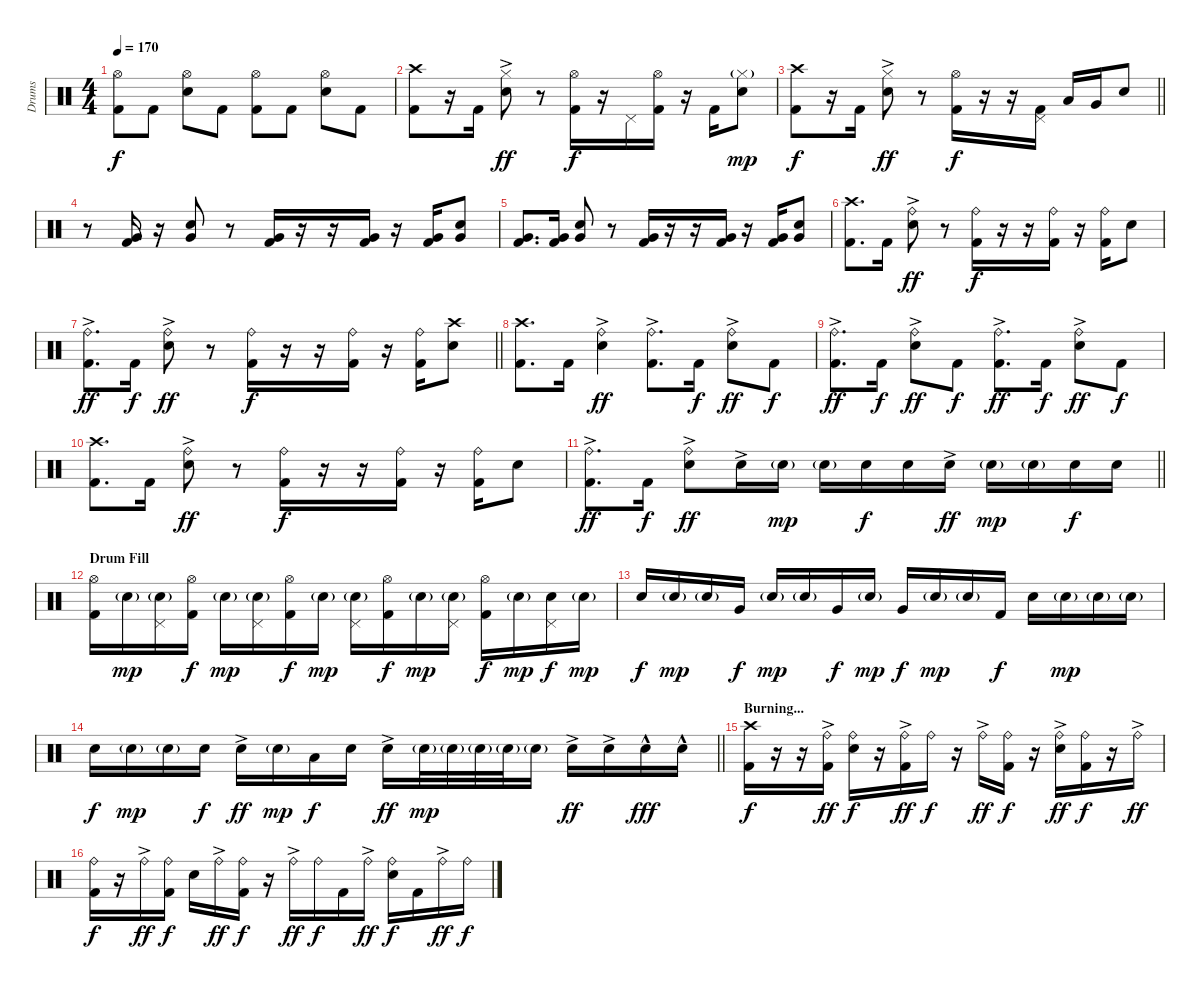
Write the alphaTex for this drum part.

\track ("Drums" "Drums") {instrument percussion}
\staff {score}
\articulation defaults
\ts (4 4)
\tempo 170
\clef neutral
\ks c
("Hi-Hat (open)" "Kick (hit) 2").8{dy f} "Kick (hit) 2".8 ("Hi-Hat (open)" "Snare (hit) 2").8 "Kick (hit) 2".8 ("Hi-Hat (open)" "Kick (hit) 2").8 "Kick (hit) 2".8 ("Hi-Hat (open)" "Snare (hit) 2").8 "Kick (hit) 2".8 |
("Crash high (hit)" "Kick (hit) 2").8 r.16 "Kick (hit) 2".16 ("Hi-Hat (closed)"{ac} "Snare (hit) 2").8{dy ff} r.8 ("Hi-Hat (open)" "Kick (hit) 2").16{dy f} r.16 "Pedal Hi-Hat (hit)".16 ("Hi-Hat (open)" "Kick (hit) 2").16 r.16 "Kick (hit) 2".16 ("Hi-Hat (closed)"{g} "Snare (hit) 2").8{dy mp} |
\barLineRight lightlight
("Crash high (hit)" "Kick (hit) 2").8{dy f} r.16 "Kick (hit) 2".16 ("Hi-Hat (closed)"{ac} "Snare (hit) 2").8{dy ff} r.8 ("Hi-Hat (open)" "Kick (hit) 2").16{dy f} r.16 r.16 ("Pedal Hi-Hat (hit)" "Kick (hit) 2").16 "Low Tom (hit)".16 "Very Low Tom (hit)".16 "Snare (hit) 2".8 |
\section ("" "")
r.8 ("Very Low Tom (hit)" "Kick (hit) 2").16 r.16 ("Very Low Tom (hit)" "Snare (hit) 2").8 r.8 ("Very Low Tom (hit)" "Kick (hit) 2").16 r.16 r.16 ("Very Low Tom (hit)" "Kick (hit) 2").16 r.16 ("Very Low Tom (hit)" "Kick (hit) 2").16 ("Very Low Tom (hit)" "Snare (hit) 2").8 |
("Very Low Tom (hit)" "Kick (hit) 2").8{d} ("Very Low Tom (hit)" "Kick (hit) 2").16 ("Very Low Tom (hit)" "Snare (hit) 2").8 r.8 ("Very Low Tom (hit)" "Kick (hit) 2").16 r.16 r.16 ("Very Low Tom (hit)" "Kick (hit) 2").16 r.16 ("Very Low Tom (hit)" "Kick (hit) 2").16 ("Very Low Tom (hit)" "Snare (hit) 2").8 |
("Crash high (hit)" "Kick (hit) 2").8{d} "Kick (hit) 2".16 ("Ride (bell)"{ac} "Snare (hit) 2").8{dy ff} r.8 ("Ride (bell)" "Kick (hit) 2").16{dy f} r.16 r.16 ("Ride (bell)" "Kick (hit) 2").16 r.16 ("Ride (bell)" "Kick (hit) 2").16 "Snare (hit) 2".8 |
\barLineRight lightlight
("Ride (bell)"{ac} "Kick (hit) 2").8{d dy ff} "Kick (hit) 2".16{dy f} ("Ride (bell)"{ac} "Snare (hit) 2").8{dy ff} r.8 ("Ride (bell)" "Kick (hit) 2").16{dy f} r.16 r.16 ("Ride (bell)" "Kick (hit) 2").16 r.16 ("Ride (bell)" "Kick (hit) 2").16 ("Crash high (hit)" "Snare (hit) 2").8 |
\section ("" "")
("Crash high (hit)" "Kick (hit) 2").8{d} "Kick (hit) 2".16 ("Ride (bell)"{ac} "Snare (hit) 2").4{dy ff} ("Ride (bell)"{ac} "Kick (hit) 2").8{d} "Kick (hit) 2".16{dy f} ("Ride (bell)"{ac} "Snare (hit) 2").8{dy ff} "Kick (hit) 2".8{dy f} |
("Ride (bell)"{ac} "Kick (hit) 2").8{d dy ff} "Kick (hit) 2".16{dy f} ("Ride (bell)"{ac} "Snare (hit) 2").8{dy ff} "Kick (hit) 2".8{dy f} ("Ride (bell)"{ac} "Kick (hit) 2").8{d dy ff} "Kick (hit) 2".16{dy f} ("Ride (bell)"{ac} "Snare (hit) 2").8{dy ff} "Kick (hit) 2".8{dy f} |
("Crash high (hit)" "Kick (hit) 2").8{d} "Kick (hit) 2".16 ("Ride (bell)"{ac} "Snare (hit) 2").8{dy ff} r.8 ("Ride (bell)" "Kick (hit) 2").16{dy f} r.16 r.16 ("Ride (bell)" "Kick (hit) 2").16 r.16 ("Ride (bell)" "Kick (hit) 2").16 "Snare (hit) 2".8 |
\barLineRight lightlight
("Ride (bell)"{ac} "Kick (hit) 2").8{d dy ff} "Kick (hit) 2".16{dy f} ("Ride (bell)"{ac} "Snare (hit) 2").8{dy ff} "Snare (hit) 2"{ac}.16 "Electric Snare (hit)"{g}.16{dy mp} "Electric Snare (hit)"{g}.16 "Electric Snare (hit)".16{dy f} "Electric Snare (hit)".16 "Snare (hit) 2"{ac}.16{dy ff} "Electric Snare (hit)"{g}.16{dy mp} "Electric Snare (hit)"{g}.16 "Electric Snare (hit)".16{dy f} "Electric Snare (hit)".16 |
\section ("" "Drum Fill")
("Hi-Hat (open)" "Kick (hit) 2").16 "Electric Snare (hit)"{g}.16{dy mp} ("Pedal Hi-Hat (hit)" "Electric Snare (hit)"{g}).16 ("Hi-Hat (open)" "Kick (hit) 2").16{dy f} "Electric Snare (hit)"{g}.16{dy mp} ("Pedal Hi-Hat (hit)" "Electric Snare (hit)"{g}).16 ("Hi-Hat (open)" "Kick (hit) 2").16{dy f} "Electric Snare (hit)"{g}.16{dy mp} ("Pedal Hi-Hat (hit)" "Electric Snare (hit)"{g}).16 ("Hi-Hat (open)" "Kick (hit) 2").16{dy f} "Electric Snare (hit)"{g}.16{dy mp} ("Pedal Hi-Hat (hit)" "Electric Snare (hit)"{g}).16 ("Hi-Hat (open)" "Kick (hit) 2").16{dy f} "Electric Snare (hit)"{g}.16{dy mp} ("Pedal Hi-Hat (hit)" "Snare (hit) 2").16{dy f} "Electric Snare (hit)"{g}.16{dy mp} |
"Snare (hit) 2".16{dy f} "Electric Snare (hit)"{g}.16{dy mp} "Electric Snare (hit)"{g}.16 "Very Low Tom (hit)".16{dy f} "Electric Snare (hit)"{g}.16{dy mp} "Electric Snare (hit)"{g}.16 "Very Low Tom (hit)".16{dy f} "Electric Snare (hit)"{g}.16{dy mp} "Very Low Tom (hit)".16{dy f} "Electric Snare (hit)"{g}.16{dy mp} "Electric Snare (hit)"{g}.16 "Kick (hit) 2".16{dy f} "Snare (hit) 2".16 "Electric Snare (hit)"{g}.16{dy mp} "Electric Snare (hit)"{g}.16 "Electric Snare (hit)"{g}.16 |
\barLineRight lightlight "Snare (hit) 2".16{dy f} "Electric Snare (hit)"{g}.16{dy mp} "Electric Snare (hit)"{g}.16 "Snare (hit) 2".16{dy f} "Snare (hit) 2"{ac}.16{dy ff} "Electric Snare (hit)"{g}.16{dy mp} "Low Tom (hit)".16{dy f} "Snare (hit) 2".16 "Snare (hit) 2"{ac}.16{dy ff} "Electric Snare (hit)"{g}.32{dy mp} "Electric Snare (hit)"{g}.32 "Electric Snare (hit)"{g}.32 "Electric Snare (hit)"{g}.32 "Snare (hit) 2"{g}.16 "Snare (hit) 2"{ac}.16{dy ff} "Snare (hit) 2"{ac}.16 "Snare (hit) 2"{hac}.16{dy fff} "Snare (hit) 2"{hac}.16
|
\section ("" "Burning...")
("Crash high (hit)" "Kick (hit) 2").16{dy f} r.16 r.16 ("Ride (bell)"{ac} "Kick (hit) 2").16{dy ff} ("Ride (bell)" "Snare (hit) 2").16{dy f} r.16 ("Ride (bell)"{ac} "Kick (hit) 2").16{dy ff} "Ride (bell)".16{dy f} r.16 "Ride (bell)"{ac}.16{dy ff} ("Ride (bell)" "Kick (hit) 2").16{dy f} r.16 ("Ride (bell)"{ac} "Snare (hit) 2").16{dy ff} ("Ride (bell)" "Kick (hit) 2").16{dy f} r.16 "Ride (bell)"{ac}.16{dy ff} |
("Ride (bell)" "Kick (hit) 2").16{dy f} r.16 "Ride (bell)"{ac}.16{dy ff} ("Ride (bell)" "Kick (hit) 2").16{dy f} "Snare (hit) 2".16 "Ride (bell)"{ac}.16{dy ff} ("Ride (bell)" "Kick (hit) 2").16{dy f} r.16 "Ride (bell)"{ac}.16{dy ff} "Ride (bell)".16{dy f} "Kick (hit) 2".16 "Ride (bell)"{ac}.16{dy ff} ("Ride (bell)" "Snare (hit) 2").16{dy f} "Kick (hit) 2".16 "Ride (bell)"{ac}.16{dy ff} "Ride (bell)".16{dy f}
